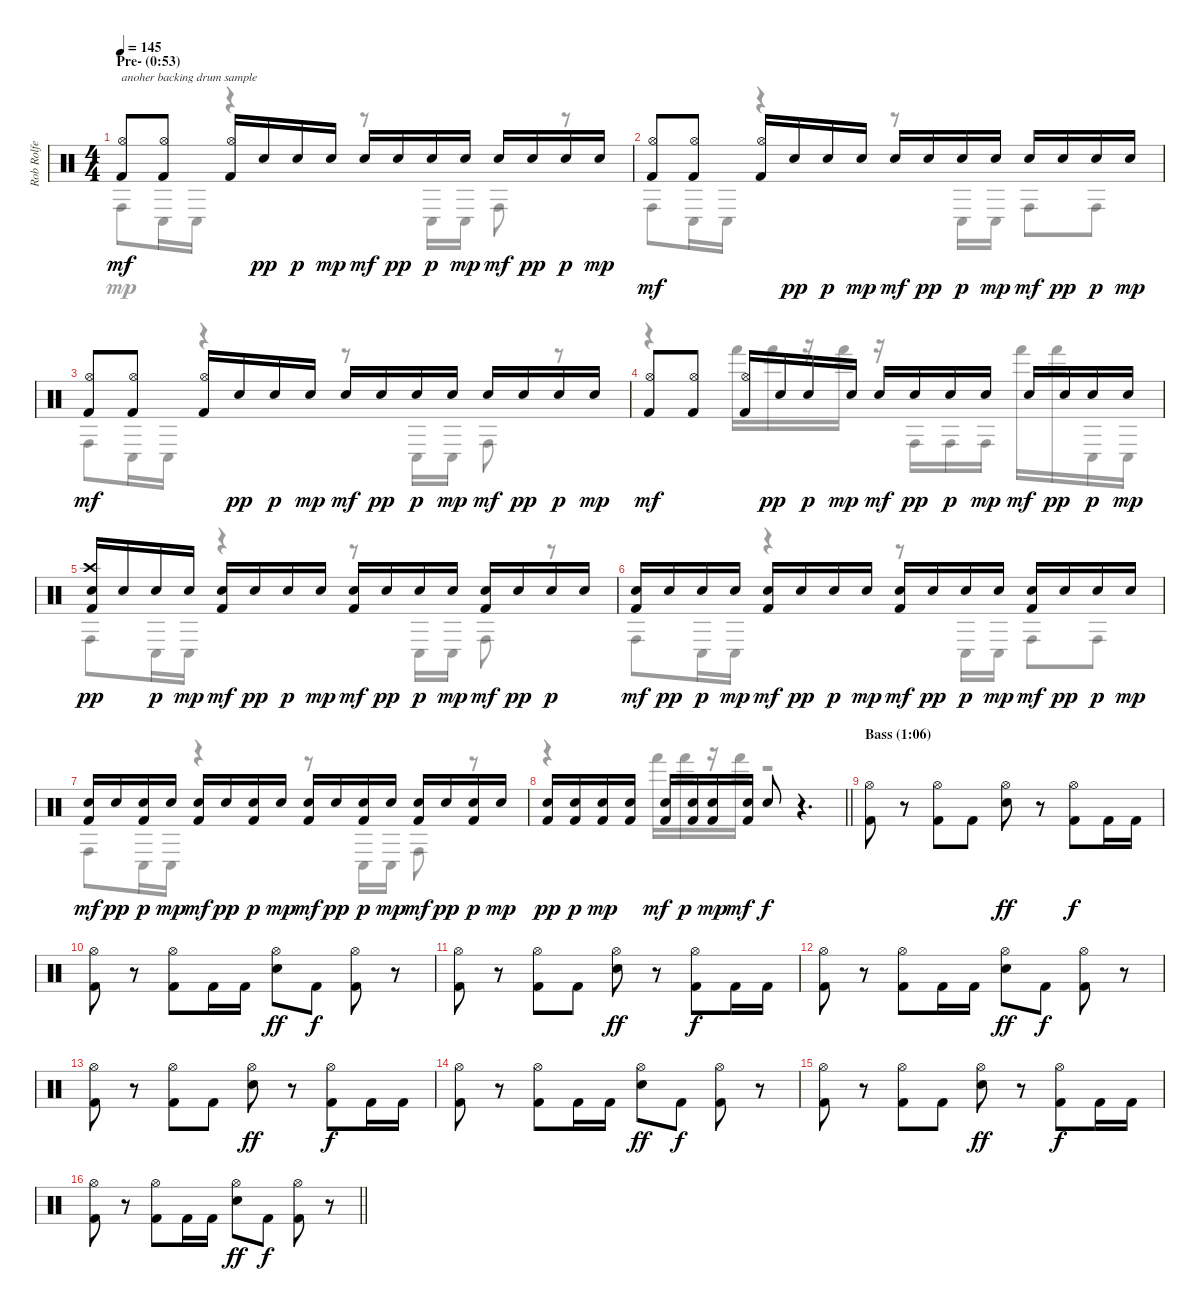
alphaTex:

\track ("Rob Rolfe [Drums]" "Rob Rolfe ") {instrument percussion}
\staff {score}
\articulation defaults
\voice
\ts (4 4)
\section ("" "Pre- (0:53)")
\tempo 145
\clef neutral
\ks c
("Hi-Hat (open)" "Kick (hit) 2").8{txt "anoher backing drum sample" dy mf} ("Hi-Hat (open)" "Kick (hit) 2").8 ("Hi-Hat (open)" "Kick (hit) 2").16 "Snare (hit) 2".16{dy pp} "Snare (hit) 2".16{dy p} "Snare (hit) 2".16{dy mp} "Snare (hit) 2".16{dy mf} "Snare (hit) 2".16{dy pp} "Snare (hit) 2".16{dy p} "Snare (hit) 2".16{dy mp} "Snare (hit) 2".16{dy mf} "Snare (hit) 2".16{dy pp} "Snare (hit) 2".16{dy p} "Snare (hit) 2".16{dy mp} |
("Hi-Hat (open)" "Kick (hit) 2").8{dy mf} ("Hi-Hat (open)" "Kick (hit) 2").8 ("Hi-Hat (open)" "Kick (hit) 2").16 "Snare (hit) 2".16{dy pp} "Snare (hit) 2".16{dy p} "Snare (hit) 2".16{dy mp} "Snare (hit) 2".16{dy mf} "Snare (hit) 2".16{dy pp} "Snare (hit) 2".16{dy p} "Snare (hit) 2".16{dy mp} "Snare (hit) 2".16{dy mf} "Snare (hit) 2".16{dy pp} "Snare (hit) 2".16{dy p} "Snare (hit) 2".16{dy mp} |
("Hi-Hat (open)" "Kick (hit) 2").8{dy mf} ("Hi-Hat (open)" "Kick (hit) 2").8 ("Hi-Hat (open)" "Kick (hit) 2").16 "Snare (hit) 2".16{dy pp} "Snare (hit) 2".16{dy p} "Snare (hit) 2".16{dy mp} "Snare (hit) 2".16{dy mf} "Snare (hit) 2".16{dy pp} "Snare (hit) 2".16{dy p} "Snare (hit) 2".16{dy mp} "Snare (hit) 2".16{dy mf} "Snare (hit) 2".16{dy pp} "Snare (hit) 2".16{dy p} "Snare (hit) 2".16{dy mp} |
("Hi-Hat (open)" "Kick (hit) 2").8{dy mf} ("Hi-Hat (open)" "Kick (hit) 2").8 ("Hi-Hat (open)" "Kick (hit) 2").16 "Snare (hit) 2".16{dy pp} "Snare (hit) 2".16{dy p} "Snare (hit) 2".16{dy mp} "Snare (hit) 2".16{dy mf} "Snare (hit) 2".16{dy pp} "Snare (hit) 2".16{dy p} "Snare (hit) 2".16{dy mp} "Snare (hit) 2".16{dy mf} "Snare (hit) 2".16{dy pp} "Snare (hit) 2".16{dy p} "Snare (hit) 2".16{dy mp} |
("Crash high (hit)" "Snare (hit) 2" "Kick (hit) 2").16{dy pp} "Snare (hit) 2".16 "Snare (hit) 2".16{dy p} "Snare (hit) 2".16{dy mp} ("Snare (hit) 2" "Kick (hit) 2").16{dy mf} "Snare (hit) 2".16{dy pp} "Snare (hit) 2".16{dy p} "Snare (hit) 2".16{dy mp} ("Snare (hit) 2" "Kick (hit) 2").16{dy mf} "Snare (hit) 2".16{dy pp} "Snare (hit) 2".16{dy p} "Snare (hit) 2".16{dy mp} ("Snare (hit) 2" "Kick (hit) 2").16{dy mf} "Snare (hit) 2".16{dy pp} "Snare (hit) 2".16{dy p} "Snare (hit) 2".16 |
("Snare (hit) 2" "Kick (hit) 2").16{dy mf} "Snare (hit) 2".16{dy pp} "Snare (hit) 2".16{dy p} "Snare (hit) 2".16{dy mp} ("Snare (hit) 2" "Kick (hit) 2").16{dy mf} "Snare (hit) 2".16{dy pp} "Snare (hit) 2".16{dy p} "Snare (hit) 2".16{dy mp} ("Snare (hit) 2" "Kick (hit) 2").16{dy mf} "Snare (hit) 2".16{dy pp} "Snare (hit) 2".16{dy p} "Snare (hit) 2".16{dy mp} ("Snare (hit) 2" "Kick (hit) 2").16{dy mf} "Snare (hit) 2".16{dy pp} "Snare (hit) 2".16{dy p} "Snare (hit) 2".16{dy mp} |
("Snare (hit) 2" "Kick (hit) 2").16{dy mf} "Snare (hit) 2".16{dy pp} ("Snare (hit) 2" "Kick (hit) 2").16{dy p} "Snare (hit) 2".16{dy mp} ("Snare (hit) 2" "Kick (hit) 2").16{dy mf} "Snare (hit) 2".16{dy pp} ("Snare (hit) 2" "Kick (hit) 2").16{dy p} "Snare (hit) 2".16{dy mp} ("Snare (hit) 2" "Kick (hit) 2").16{dy mf} "Snare (hit) 2".16{dy pp} ("Snare (hit) 2" "Kick (hit) 2").16{dy p} "Snare (hit) 2".16{dy mp} ("Snare (hit) 2" "Kick (hit) 2").16{dy mf} "Snare (hit) 2".16{dy pp} ("Snare (hit) 2" "Kick (hit) 2").16{dy p} "Snare (hit) 2".16{dy mp} |
\barLineRight lightlight
("Snare (hit) 2" "Kick (hit) 2").16{dy pp} ("Snare (hit) 2" "Kick (hit) 2").16{dy p} ("Snare (hit) 2" "Kick (hit) 2").16{dy mp} ("Snare (hit) 2" "Kick (hit) 2").16 ("Snare (hit) 2" "Kick (hit) 2").16{dy mf} ("Snare (hit) 2" "Kick (hit) 2").16{dy p} ("Snare (hit) 2" "Kick (hit) 2").16{dy mp} ("Snare (hit) 2" "Kick (hit) 2").16{dy mf} "Snare (hit) 2".8{dy f} r.4{d} |
\section ("" "Bass (1:06)")
("Hi-Hat (open)" "Kick (hit) 2").8 r.8 ("Hi-Hat (open)" "Kick (hit) 2").8 "Kick (hit) 2".8 ("Hi-Hat (open)" "Electric Snare (hit)").8{dy ff} r.8 ("Hi-Hat (open)" "Kick (hit) 2").8{dy f} "Kick (hit) 2".16 "Kick (hit) 2".16 |
("Hi-Hat (open)" "Kick (hit) 2").8 r.8 ("Hi-Hat (open)" "Kick (hit) 2").8 "Kick (hit) 2".16 "Kick (hit) 2".16 ("Hi-Hat (open)" "Electric Snare (hit)").8{dy ff} "Kick (hit) 2".8{dy f} ("Hi-Hat (open)" "Kick (hit) 2").8 r.8 |
("Hi-Hat (open)" "Kick (hit) 2").8 r.8 ("Hi-Hat (open)" "Kick (hit) 2").8 "Kick (hit) 2".8 ("Hi-Hat (open)" "Electric Snare (hit)").8{dy ff} r.8 ("Hi-Hat (open)" "Kick (hit) 2").8{dy f} "Kick (hit) 2".16 "Kick (hit) 2".16 |
("Hi-Hat (open)" "Kick (hit) 2").8 r.8 ("Hi-Hat (open)" "Kick (hit) 2").8 "Kick (hit) 2".16 "Kick (hit) 2".16 ("Hi-Hat (open)" "Electric Snare (hit)").8{dy ff} "Kick (hit) 2".8{dy f} ("Hi-Hat (open)" "Kick (hit) 2").8 r.8 |
("Hi-Hat (open)" "Kick (hit) 2").8 r.8 ("Hi-Hat (open)" "Kick (hit) 2").8 "Kick (hit) 2".8 ("Hi-Hat (open)" "Electric Snare (hit)").8{dy ff} r.8 ("Hi-Hat (open)" "Kick (hit) 2").8{dy f} "Kick (hit) 2".16 "Kick (hit) 2".16 |
("Hi-Hat (open)" "Kick (hit) 2").8 r.8 ("Hi-Hat (open)" "Kick (hit) 2").8 "Kick (hit) 2".16 "Kick (hit) 2".16 ("Hi-Hat (open)" "Electric Snare (hit)").8{dy ff} "Kick (hit) 2".8{dy f} ("Hi-Hat (open)" "Kick (hit) 2").8 r.8 |
("Hi-Hat (open)" "Kick (hit) 2").8 r.8 ("Hi-Hat (open)" "Kick (hit) 2").8 "Kick (hit) 2".8 ("Hi-Hat (open)" "Electric Snare (hit)").8{dy ff} r.8 ("Hi-Hat (open)" "Kick (hit) 2").8{dy f} "Kick (hit) 2".16 "Kick (hit) 2".16 |
\barLineRight lightlight
("Hi-Hat (open)" "Kick (hit) 2").8 r.8 ("Hi-Hat (open)" "Kick (hit) 2").8 "Kick (hit) 2".16 "Kick (hit) 2".16 ("Hi-Hat (open)" "Electric Snare (hit)").8{dy ff} "Kick (hit) 2".8{dy f} ("Hi-Hat (open)" "Kick (hit) 2").8 r.8
\voice
\clef neutral
\ottava regular
\simile none
\ks c "Conga high (hit)".8{dy mp} "Conga low (hit)".16 "Conga low (hit)".16
r.4 r.8 "Conga low (hit)".16 "Conga low (hit)".16 "Conga high (hit)".8 r.8 |
"Conga high (hit)".8 "Conga low (hit)".16 "Conga low (hit)".16 r.4 r.8 "Conga low (hit)".16 "Conga low (hit)".16 "Conga high (hit)".8 "Conga high (hit)".8 |
"Conga high (hit)".8 "Conga low (hit)".16 "Conga low (hit)".16 r.4 r.8 "Conga low (hit)".16 "Conga low (hit)".16 "Conga high (hit)".8 r.8 |
r.4 "Hand (hit)".16 "Hand (hit)".16 r.16 "Hand (hit)".16 r.16 "Conga high (hit)".16 "Conga high (hit)".16 "Conga high (hit)".16 "Hand (hit)".16 "Hand (hit)".16 "Conga low (hit)".16 "Conga low (hit)".16 |
"Conga high (hit)".8 "Conga low (hit)".16 "Conga low (hit)".16 r.4 r.8 "Conga low (hit)".16 "Conga low (hit)".16 "Conga high (hit)".8 r.8 |
"Conga high (hit)".8 "Conga low (hit)".16 "Conga low (hit)".16 r.4 r.8 "Conga low (hit)".16 "Conga low (hit)".16 "Conga high (hit)".8 "Conga high (hit)".8 |
"Conga high (hit)".8 "Conga low (hit)".16 "Conga low (hit)".16 r.4 r.8 "Conga low (hit)".16 "Conga low (hit)".16 "Conga high (hit)".8 r.8 |
\barLineRight lightlight
r.4 "Hand (hit)".16 "Hand (hit)".16 r.16 "Hand (hit)".16 r.2 |
|
|
|
|
|
|
|
\barLineRight lightlight
